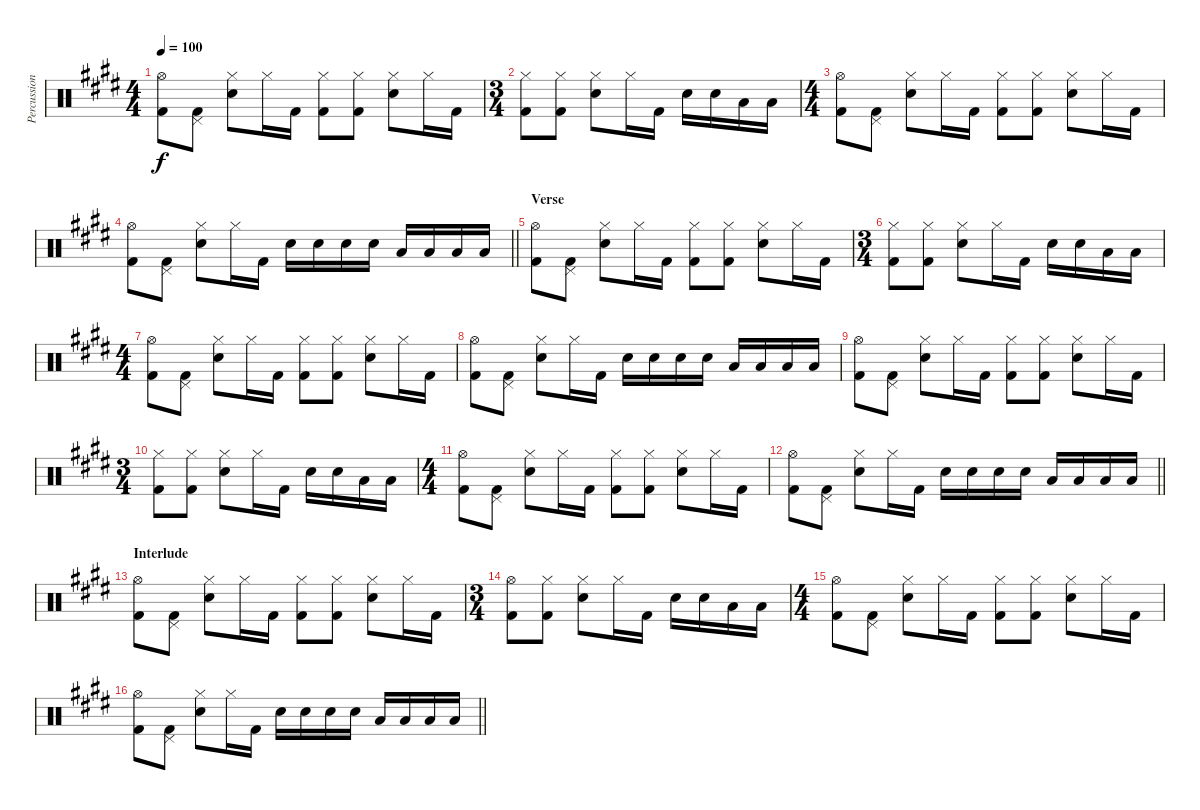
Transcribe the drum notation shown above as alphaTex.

\track ("Percussion" "Percussion") {instrument percussion}
\staff {score}
\articulation defaults
\ts (4 4)
\tempo 100
\clef neutral
\ks e
("Hi-Hat (open)" "Kick (hit) 2").8{dy f} ("Pedal Hi-Hat (hit)" "Kick (hit) 2").8 ("Hi-Hat (closed)" "Electric Snare (hit)").8 "Hi-Hat (closed)".16 "Kick (hit) 2".16 ("Hi-Hat (closed)" "Kick (hit) 2").8 ("Hi-Hat (closed)" "Kick (hit) 2").8 ("Hi-Hat (closed)" "Electric Snare (hit)").8 "Hi-Hat (closed)".16 "Kick (hit) 2".16 |
\ts (3 4)
("Hi-Hat (closed)" "Kick (hit) 2").8 ("Hi-Hat (closed)" "Kick (hit) 2").8 ("Electric Snare (hit)" "Hi-Hat (closed)").8 "Hi-Hat (closed)".16 "Kick (hit) 2".16 "Electric Snare (hit)".16 "Electric Snare (hit)".16 "Low Tom (hit)".16 "Low Tom (hit)".16 |
\ts (4 4)
("Hi-Hat (open)" "Kick (hit) 2").8 ("Pedal Hi-Hat (hit)" "Kick (hit) 2").8 ("Hi-Hat (closed)" "Electric Snare (hit)").8 "Hi-Hat (closed)".16 "Kick (hit) 2".16 ("Hi-Hat (closed)" "Kick (hit) 2").8 ("Hi-Hat (closed)" "Kick (hit) 2").8 ("Hi-Hat (closed)" "Electric Snare (hit)").8 "Hi-Hat (closed)".16 "Kick (hit) 2".16 |
\barLineRight lightlight
("Hi-Hat (open)" "Kick (hit) 2").8 ("Pedal Hi-Hat (hit)" "Kick (hit) 2").8 ("Hi-Hat (closed)" "Electric Snare (hit)").8 "Hi-Hat (closed)".16 "Kick (hit) 2".16 "Electric Snare (hit)".16 "Electric Snare (hit)".16 "Electric Snare (hit)".16 "Electric Snare (hit)".16 "Low Tom (hit)".16 "Low Tom (hit)".16 "Low Tom (hit)".16 "Low Tom (hit)".16 |
\section ("" "Verse")
("Hi-Hat (open)" "Kick (hit) 2").8 ("Pedal Hi-Hat (hit)" "Kick (hit) 2").8 ("Hi-Hat (closed)" "Electric Snare (hit)").8 "Hi-Hat (closed)".16 "Kick (hit) 2".16 ("Hi-Hat (closed)" "Kick (hit) 2").8 ("Hi-Hat (closed)" "Kick (hit) 2").8 ("Hi-Hat (closed)" "Electric Snare (hit)").8 "Hi-Hat (closed)".16 "Kick (hit) 2".16 |
\ts (3 4)
("Hi-Hat (closed)" "Kick (hit) 2").8 ("Hi-Hat (closed)" "Kick (hit) 2").8 ("Electric Snare (hit)" "Hi-Hat (closed)").8 "Hi-Hat (closed)".16 "Kick (hit) 2".16 "Electric Snare (hit)".16 "Electric Snare (hit)".16 "Low Tom (hit)".16 "Low Tom (hit)".16 |
\ts (4 4)
("Hi-Hat (open)" "Kick (hit) 2").8 ("Pedal Hi-Hat (hit)" "Kick (hit) 2").8 ("Hi-Hat (closed)" "Electric Snare (hit)").8 "Hi-Hat (closed)".16 "Kick (hit) 2".16 ("Hi-Hat (closed)" "Kick (hit) 2").8 ("Hi-Hat (closed)" "Kick (hit) 2").8 ("Hi-Hat (closed)" "Electric Snare (hit)").8 "Hi-Hat (closed)".16 "Kick (hit) 2".16 |
("Hi-Hat (open)" "Kick (hit) 2").8 ("Pedal Hi-Hat (hit)" "Kick (hit) 2").8 ("Hi-Hat (closed)" "Electric Snare (hit)").8 "Hi-Hat (closed)".16 "Kick (hit) 2".16 "Electric Snare (hit)".16 "Electric Snare (hit)".16 "Electric Snare (hit)".16 "Electric Snare (hit)".16 "Low Tom (hit)".16 "Low Tom (hit)".16 "Low Tom (hit)".16 "Low Tom (hit)".16 |
("Hi-Hat (open)" "Kick (hit) 2").8 ("Pedal Hi-Hat (hit)" "Kick (hit) 2").8 ("Hi-Hat (closed)" "Electric Snare (hit)").8 "Hi-Hat (closed)".16 "Kick (hit) 2".16 ("Hi-Hat (closed)" "Kick (hit) 2").8 ("Hi-Hat (closed)" "Kick (hit) 2").8 ("Hi-Hat (closed)" "Electric Snare (hit)").8 "Hi-Hat (closed)".16 "Kick (hit) 2".16 |
\ts (3 4)
("Hi-Hat (closed)" "Kick (hit) 2").8 ("Hi-Hat (closed)" "Kick (hit) 2").8 ("Electric Snare (hit)" "Hi-Hat (closed)").8 "Hi-Hat (closed)".16 "Kick (hit) 2".16 "Electric Snare (hit)".16 "Electric Snare (hit)".16 "Low Tom (hit)".16 "Low Tom (hit)".16 |
\ts (4 4)
("Hi-Hat (open)" "Kick (hit) 2").8 ("Pedal Hi-Hat (hit)" "Kick (hit) 2").8 ("Hi-Hat (closed)" "Electric Snare (hit)").8 "Hi-Hat (closed)".16 "Kick (hit) 2".16 ("Hi-Hat (closed)" "Kick (hit) 2").8 ("Hi-Hat (closed)" "Kick (hit) 2").8 ("Hi-Hat (closed)" "Electric Snare (hit)").8 "Hi-Hat (closed)".16 "Kick (hit) 2".16 |
\barLineRight lightlight
("Hi-Hat (open)" "Kick (hit) 2").8 ("Pedal Hi-Hat (hit)" "Kick (hit) 2").8 ("Hi-Hat (closed)" "Electric Snare (hit)").8 "Hi-Hat (closed)".16 "Kick (hit) 2".16 "Electric Snare (hit)".16 "Electric Snare (hit)".16 "Electric Snare (hit)".16 "Electric Snare (hit)".16 "Low Tom (hit)".16 "Low Tom (hit)".16 "Low Tom (hit)".16 "Low Tom (hit)".16 |
\section ("" "Interlude")
("Hi-Hat (open)" "Kick (hit) 2").8 ("Pedal Hi-Hat (hit)" "Kick (hit) 2").8 ("Hi-Hat (closed)" "Electric Snare (hit)").8 "Hi-Hat (closed)".16 "Kick (hit) 2".16 ("Hi-Hat (closed)" "Kick (hit) 2").8 ("Hi-Hat (closed)" "Kick (hit) 2").8 ("Hi-Hat (closed)" "Electric Snare (hit)").8 "Hi-Hat (closed)".16 "Kick (hit) 2".16 |
\ts (3 4)
("Hi-Hat (open)" "Kick (hit) 2").8 ("Hi-Hat (closed)" "Kick (hit) 2").8 ("Electric Snare (hit)" "Hi-Hat (closed)").8 "Hi-Hat (closed)".16 "Kick (hit) 2".16 "Electric Snare (hit)".16 "Electric Snare (hit)".16 "Low Tom (hit)".16 "Low Tom (hit)".16 |
\ts (4 4)
("Hi-Hat (open)" "Kick (hit) 2").8 ("Pedal Hi-Hat (hit)" "Kick (hit) 2").8 ("Hi-Hat (closed)" "Electric Snare (hit)").8 "Hi-Hat (closed)".16 "Kick (hit) 2".16 ("Hi-Hat (closed)" "Kick (hit) 2").8 ("Hi-Hat (closed)" "Kick (hit) 2").8 ("Hi-Hat (closed)" "Electric Snare (hit)").8 "Hi-Hat (closed)".16 "Kick (hit) 2".16 |
\barLineRight lightlight
("Hi-Hat (open)" "Kick (hit) 2").8 ("Pedal Hi-Hat (hit)" "Kick (hit) 2").8 ("Hi-Hat (closed)" "Electric Snare (hit)").8 "Hi-Hat (closed)".16 "Kick (hit) 2".16 "Electric Snare (hit)".16 "Electric Snare (hit)".16 "Electric Snare (hit)".16 "Electric Snare (hit)".16 "Low Tom (hit)".16 "Low Tom (hit)".16 "Low Tom (hit)".16 "Low Tom (hit)".16
